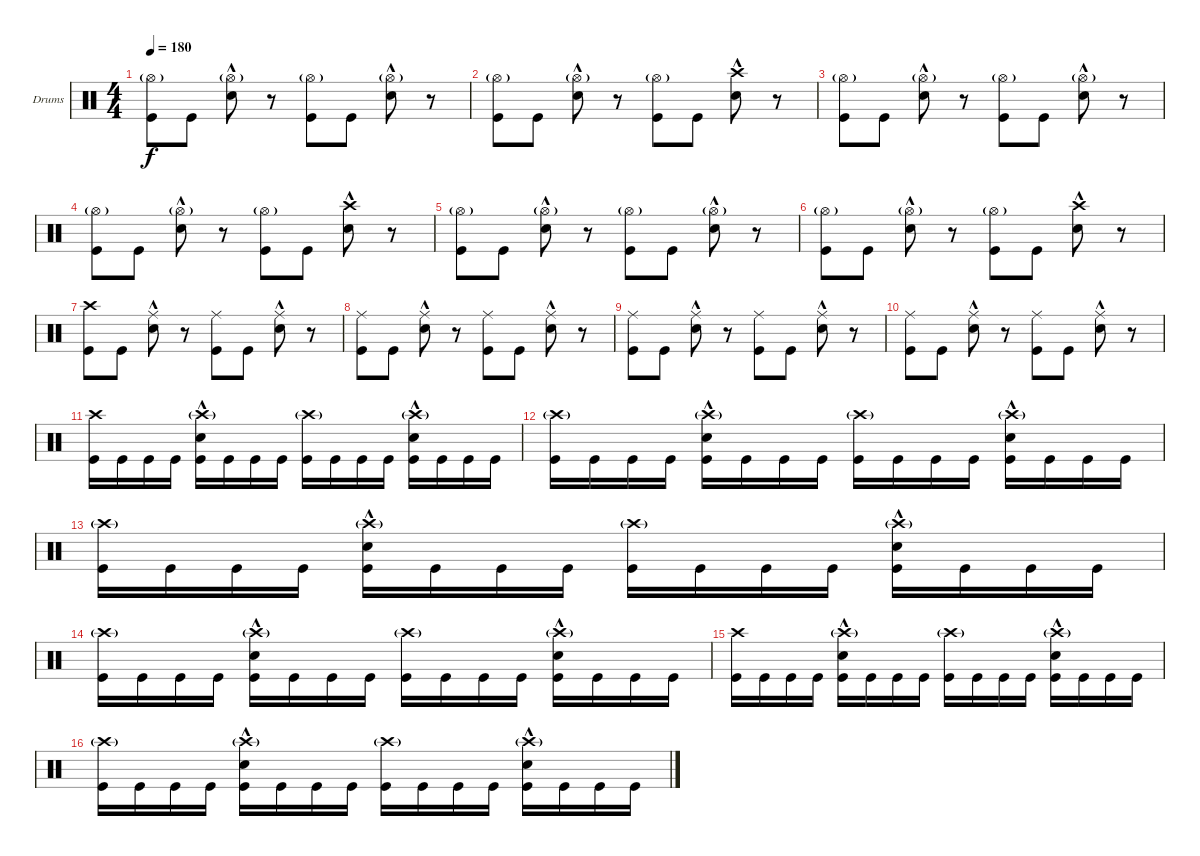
\bracketExtendMode groupsimilarinstruments
\firstSystemTrackNameOrientation horizontal
\otherSystemsTrackNameOrientation horizontal
\track ("Drumkit" "Drums") {instrument percussion}
\staff {score}
\articulation defaults
\ts (4 4)
\tempo 180
\clef neutral
\scale
0.333333
\ks c
("Kick (hit)" "Hi-Hat (open)"{g}).8{dy f} "Kick (hit)".8 ("Hi-Hat (open)"{g} "Snare (hit) 2"{hac}).8 r.8 ("Hi-Hat (open)"{g} "Kick (hit)").8 "Kick (hit)".8 ("Hi-Hat (open)"{g} "Snare (hit) 2"{hac}).8 r.8 |
\scale
0.333333 ("Kick (hit)" "Hi-Hat (open)"{g}).8 "Kick (hit)".8 ("Hi-Hat (open)"{g} "Snare (hit) 2"{hac}).8 r.8 ("Hi-Hat (open)"{g} "Kick (hit)").8 "Kick (hit)".8 ("Snare (hit) 2"{hac} "Crash high (hit)").8 r.8 |
\scale
0.333333 ("Kick (hit)" "Hi-Hat (open)"{g}).8 "Kick (hit)".8 ("Hi-Hat (open)"{g} "Snare (hit) 2"{hac}).8 r.8 ("Hi-Hat (open)"{g} "Kick (hit)").8 "Kick (hit)".8 ("Hi-Hat (open)"{g} "Snare (hit) 2"{hac}).8 r.8 |
\scale
0.333333 ("Kick (hit)" "Hi-Hat (open)"{g}).8 "Kick (hit)".8 ("Hi-Hat (open)"{g} "Snare (hit) 2"{hac}).8 r.8 ("Hi-Hat (open)"{g} "Kick (hit)").8 "Kick (hit)".8 ("Snare (hit) 2"{hac} "Crash high (hit)").8 r.8 |
\scale
0.333333 ("Kick (hit)" "Hi-Hat (open)"{g}).8 "Kick (hit)".8 ("Hi-Hat (open)"{g} "Snare (hit) 2"{hac}).8 r.8 ("Hi-Hat (open)"{g} "Kick (hit)").8 "Kick (hit)".8 ("Hi-Hat (open)"{g} "Snare (hit) 2"{hac}).8 r.8 |
\scale
0.333333 ("Kick (hit)" "Hi-Hat (open)"{g}).8 "Kick (hit)".8 ("Hi-Hat (open)"{g} "Snare (hit) 2"{hac}).8 r.8 ("Hi-Hat (open)"{g} "Kick (hit)").8 "Kick (hit)".8 ("Snare (hit) 2"{hac} "Crash high (hit)").8 r.8 |
\scale
0.333333 ("Crash high (hit)" "Kick (hit)").8 "Kick (hit)".8 ("Snare (hit) 2"{hac} "Ride (middle)").8 r.8 ("Kick (hit)" "Ride (middle)").8 "Kick (hit)".8 ("Snare (hit) 2"{hac} "Ride (middle)").8 r.8 |
\scale
0.333333 ("Kick (hit)" "Ride (middle)").8 "Kick (hit)".8 ("Snare (hit) 2"{hac} "Ride (middle)").8 r.8 ("Kick (hit)" "Ride (middle)").8 "Kick (hit)".8 ("Snare (hit) 2"{hac} "Ride (middle)").8 r.8 |
\scale
0.333333 ("Kick (hit)" "Ride (middle)").8 "Kick (hit)".8 ("Snare (hit) 2"{hac} "Ride (middle)").8 r.8 ("Kick (hit)" "Ride (middle)").8 "Kick (hit)".8 ("Snare (hit) 2"{hac} "Ride (middle)").8 r.8 |
\scale
0.333333 ("Kick (hit)" "Ride (middle)").8 "Kick (hit)".8 ("Snare (hit) 2"{hac} "Ride (middle)").8 r.8 ("Kick (hit)" "Ride (middle)").8 "Kick (hit)".8 ("Snare (hit) 2"{hac} "Ride (middle)").8 r.8 |
\scale
0.333333 ("Kick (hit)" "Crash high (hit)").16 "Kick (hit)".16 "Kick (hit)".16 "Kick (hit)".16 ("Kick (hit)" "Snare (hit) 2"{hac} "Crash high (hit)"{g}).16 "Kick (hit)".16 "Kick (hit)".16 "Kick (hit)".16 ("Kick (hit)" "Crash high (hit)"{g}).16 "Kick (hit)".16 "Kick (hit)".16 "Kick (hit)".16 ("Kick (hit)" "Snare (hit) 2"{hac} "Crash high (hit)"{g}).16 "Kick (hit)".16 "Kick (hit)".16 "Kick (hit)".16 |
\scale
0.333333 ("Kick (hit)" "Crash high (hit)"{g}).16 "Kick (hit)".16 "Kick (hit)".16 "Kick (hit)".16 ("Kick (hit)" "Snare (hit) 2"{hac} "Crash high (hit)"{g}).16 "Kick (hit)".16 "Kick (hit)".16 "Kick (hit)".16 ("Kick (hit)" "Crash high (hit)"{g}).16 "Kick (hit)".16 "Kick (hit)".16 "Kick (hit)".16 ("Kick (hit)" "Snare (hit) 2"{hac} "Crash high (hit)"{g}).16 "Kick (hit)".16 "Kick (hit)".16 "Kick (hit)".16 |
\scale
0.333333 ("Kick (hit)" "Crash high (hit)"{g}).16 "Kick (hit)".16 "Kick (hit)".16 "Kick (hit)".16 ("Kick (hit)" "Snare (hit) 2"{hac} "Crash high (hit)"{g}).16 "Kick (hit)".16 "Kick (hit)".16 "Kick (hit)".16 ("Kick (hit)" "Crash high (hit)"{g}).16 "Kick (hit)".16 "Kick (hit)".16 "Kick (hit)".16 ("Kick (hit)" "Snare (hit) 2"{hac} "Crash high (hit)"{g}).16 "Kick (hit)".16 "Kick (hit)".16 "Kick (hit)".16 |
\scale
0.333333 ("Kick (hit)" "Crash high (hit)"{g}).16 "Kick (hit)".16 "Kick (hit)".16 "Kick (hit)".16 ("Kick (hit)" "Snare (hit) 2"{hac} "Crash high (hit)"{g}).16 "Kick (hit)".16 "Kick (hit)".16 "Kick (hit)".16 ("Kick (hit)" "Crash high (hit)"{g}).16 "Kick (hit)".16 "Kick (hit)".16 "Kick (hit)".16 ("Kick (hit)" "Snare (hit) 2"{hac} "Crash high (hit)"{g}).16 "Kick (hit)".16 "Kick (hit)".16 "Kick (hit)".16 |
\scale
0.333333 ("Kick (hit)" "Crash high (hit)").16 "Kick (hit)".16 "Kick (hit)".16 "Kick (hit)".16 ("Kick (hit)" "Snare (hit) 2"{hac} "Crash high (hit)"{g}).16 "Kick (hit)".16 "Kick (hit)".16 "Kick (hit)".16 ("Kick (hit)" "Crash high (hit)"{g}).16 "Kick (hit)".16 "Kick (hit)".16 "Kick (hit)".16 ("Kick (hit)" "Snare (hit) 2"{hac} "Crash high (hit)"{g}).16 "Kick (hit)".16 "Kick (hit)".16 "Kick (hit)".16 |
\scale
0.333333 ("Kick (hit)" "Crash high (hit)"{g}).16 "Kick (hit)".16 "Kick (hit)".16 "Kick (hit)".16 ("Kick (hit)" "Snare (hit) 2"{hac} "Crash high (hit)"{g}).16 "Kick (hit)".16 "Kick (hit)".16 "Kick (hit)".16 ("Kick (hit)" "Crash high (hit)"{g}).16 "Kick (hit)".16 "Kick (hit)".16 "Kick (hit)".16 ("Kick (hit)" "Snare (hit) 2"{hac} "Crash high (hit)"{g}).16 "Kick (hit)".16 "Kick (hit)".16 "Kick (hit)".16
